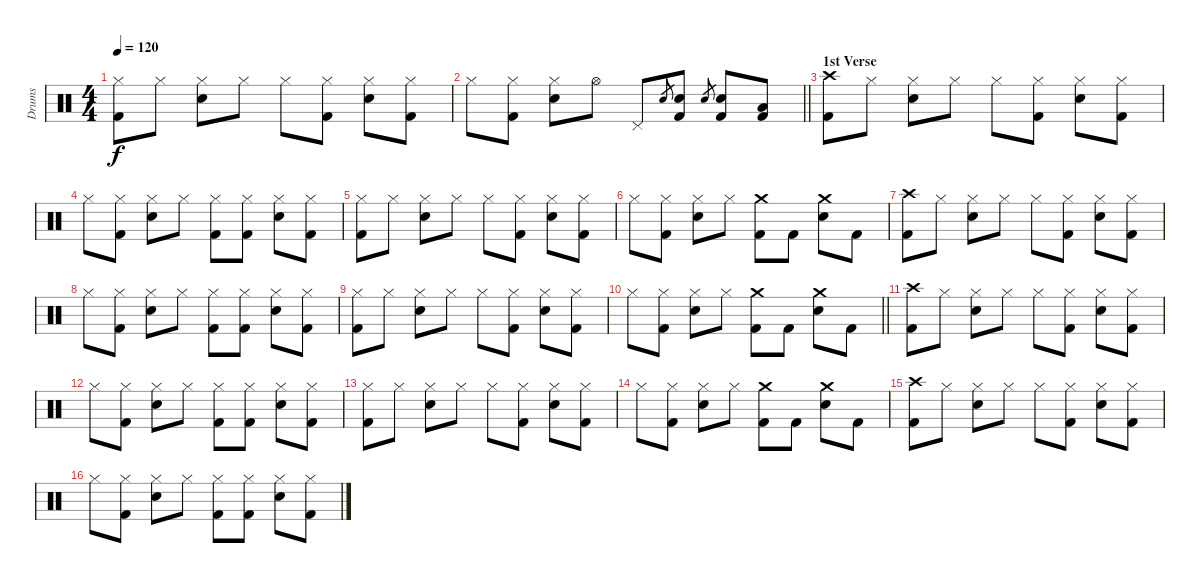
\track ("Drums" "Drums") {instrument percussion}
\staff {score}
\articulation defaults
\ts (4 4)
\tempo 120
\clef neutral
\ks c
("Hi-Hat (closed)" "Kick (hit) 2").8{dy f} "Hi-Hat (closed)".8 ("Hi-Hat (closed)" "Snare (hit) 2").8 "Hi-Hat (closed)".8 "Hi-Hat (closed)".8 ("Hi-Hat (closed)" "Kick (hit) 2").8 ("Hi-Hat (closed)" "Snare (hit) 2").8 ("Hi-Hat (closed)" "Kick (hit) 2").8 |
\barLineRight lightlight "Hi-Hat (closed)".8
("Hi-Hat (closed)" "Kick (hit) 2").8 ("Hi-Hat (closed)" "Snare (hit) 2").8 "Hi-Hat (open)".8 "Pedal Hi-Hat (hit)".8 "Snare (hit) 2".8{gr} ("Snare (hit) 2" "Kick (hit) 2").8 "Snare (hit) 2".8{gr} ("Snare (hit) 2" "Kick (hit) 2").8 ("Low Floor Tom (hit)" "Kick (hit) 2").8 |
\section ("" "1st Verse")
("Crash high (hit)" "Kick (hit) 2").8 "Hi-Hat (closed)".8 ("Hi-Hat (closed)" "Snare (hit) 2").8 "Hi-Hat (closed)".8 "Hi-Hat (closed)".8 ("Hi-Hat (closed)" "Kick (hit) 2").8 ("Hi-Hat (closed)" "Snare (hit) 2").8 ("Hi-Hat (closed)" "Kick (hit) 2").8 |
"Hi-Hat (closed)".8 ("Hi-Hat (closed)" "Kick (hit) 2").8 ("Hi-Hat (closed)" "Snare (hit) 2").8 "Hi-Hat (closed)".8 ("Hi-Hat (closed)" "Kick (hit) 2").8 ("Hi-Hat (closed)" "Kick (hit) 2").8 ("Hi-Hat (closed)" "Snare (hit) 2").8 ("Hi-Hat (closed)" "Kick (hit) 2").8 |
("Hi-Hat (closed)" "Kick (hit) 2").8 "Hi-Hat (closed)".8 ("Hi-Hat (closed)" "Snare (hit) 2").8 "Hi-Hat (closed)".8 "Hi-Hat (closed)".8 ("Hi-Hat (closed)" "Kick (hit) 2").8 ("Hi-Hat (closed)" "Snare (hit) 2").8 ("Hi-Hat (closed)" "Kick (hit) 2").8 |
"Hi-Hat (closed)".8 ("Hi-Hat (closed)" "Kick (hit) 2").8 ("Hi-Hat (closed)" "Snare (hit) 2").8 "Hi-Hat (closed)".8 ("Crash medium (hit)" "Kick (hit) 2").8 "Kick (hit) 2".8 ("Crash medium (hit)" "Snare (hit) 2").8 "Kick (hit) 2".8 |
("Crash high (hit)" "Kick (hit) 2").8 "Hi-Hat (closed)".8 ("Hi-Hat (closed)" "Snare (hit) 2").8 "Hi-Hat (closed)".8 "Hi-Hat (closed)".8 ("Hi-Hat (closed)" "Kick (hit) 2").8 ("Hi-Hat (closed)" "Snare (hit) 2").8 ("Hi-Hat (closed)" "Kick (hit) 2").8 |
"Hi-Hat (closed)".8 ("Hi-Hat (closed)" "Kick (hit) 2").8 ("Hi-Hat (closed)" "Snare (hit) 2").8 "Hi-Hat (closed)".8 ("Hi-Hat (closed)" "Kick (hit) 2").8 ("Hi-Hat (closed)" "Kick (hit) 2").8 ("Hi-Hat (closed)" "Snare (hit) 2").8 ("Hi-Hat (closed)" "Kick (hit) 2").8 |
("Hi-Hat (closed)" "Kick (hit) 2").8 "Hi-Hat (closed)".8 ("Hi-Hat (closed)" "Snare (hit) 2").8 "Hi-Hat (closed)".8 "Hi-Hat (closed)".8 ("Hi-Hat (closed)" "Kick (hit) 2").8 ("Hi-Hat (closed)" "Snare (hit) 2").8 ("Hi-Hat (closed)" "Kick (hit) 2").8 |
\barLineRight lightlight "Hi-Hat (closed)".8
("Hi-Hat (closed)" "Kick (hit) 2").8 ("Hi-Hat (closed)" "Snare (hit) 2").8 "Hi-Hat (closed)".8 ("Crash medium (hit)" "Kick (hit) 2").8 "Kick (hit) 2".8 ("Crash medium (hit)" "Snare (hit) 2").8 "Kick (hit) 2".8 |
("Crash high (hit)" "Kick (hit) 2").8 "Hi-Hat (closed)".8 ("Hi-Hat (closed)" "Snare (hit) 2").8 "Hi-Hat (closed)".8 "Hi-Hat (closed)".8 ("Hi-Hat (closed)" "Kick (hit) 2").8 ("Hi-Hat (closed)" "Snare (hit) 2").8 ("Hi-Hat (closed)" "Kick (hit) 2").8 |
"Hi-Hat (closed)".8 ("Hi-Hat (closed)" "Kick (hit) 2").8 ("Hi-Hat (closed)" "Snare (hit) 2").8 "Hi-Hat (closed)".8 ("Hi-Hat (closed)" "Kick (hit) 2").8 ("Hi-Hat (closed)" "Kick (hit) 2").8 ("Hi-Hat (closed)" "Snare (hit) 2").8 ("Hi-Hat (closed)" "Kick (hit) 2").8 |
("Hi-Hat (closed)" "Kick (hit) 2").8 "Hi-Hat (closed)".8 ("Hi-Hat (closed)" "Snare (hit) 2").8 "Hi-Hat (closed)".8 "Hi-Hat (closed)".8 ("Hi-Hat (closed)" "Kick (hit) 2").8 ("Hi-Hat (closed)" "Snare (hit) 2").8 ("Hi-Hat (closed)" "Kick (hit) 2").8 |
"Hi-Hat (closed)".8 ("Hi-Hat (closed)" "Kick (hit) 2").8 ("Hi-Hat (closed)" "Snare (hit) 2").8 "Hi-Hat (closed)".8 ("Crash medium (hit)" "Kick (hit) 2").8 "Kick (hit) 2".8 ("Crash medium (hit)" "Snare (hit) 2").8 "Kick (hit) 2".8 |
("Crash high (hit)" "Kick (hit) 2").8 "Hi-Hat (closed)".8 ("Hi-Hat (closed)" "Snare (hit) 2").8 "Hi-Hat (closed)".8 "Hi-Hat (closed)".8 ("Hi-Hat (closed)" "Kick (hit) 2").8 ("Hi-Hat (closed)" "Snare (hit) 2").8 ("Hi-Hat (closed)" "Kick (hit) 2").8 |
"Hi-Hat (closed)".8 ("Hi-Hat (closed)" "Kick (hit) 2").8 ("Hi-Hat (closed)" "Snare (hit) 2").8 "Hi-Hat (closed)".8 ("Hi-Hat (closed)" "Kick (hit) 2").8 ("Hi-Hat (closed)" "Kick (hit) 2").8 ("Hi-Hat (closed)" "Snare (hit) 2").8 ("Hi-Hat (closed)" "Kick (hit) 2").8
